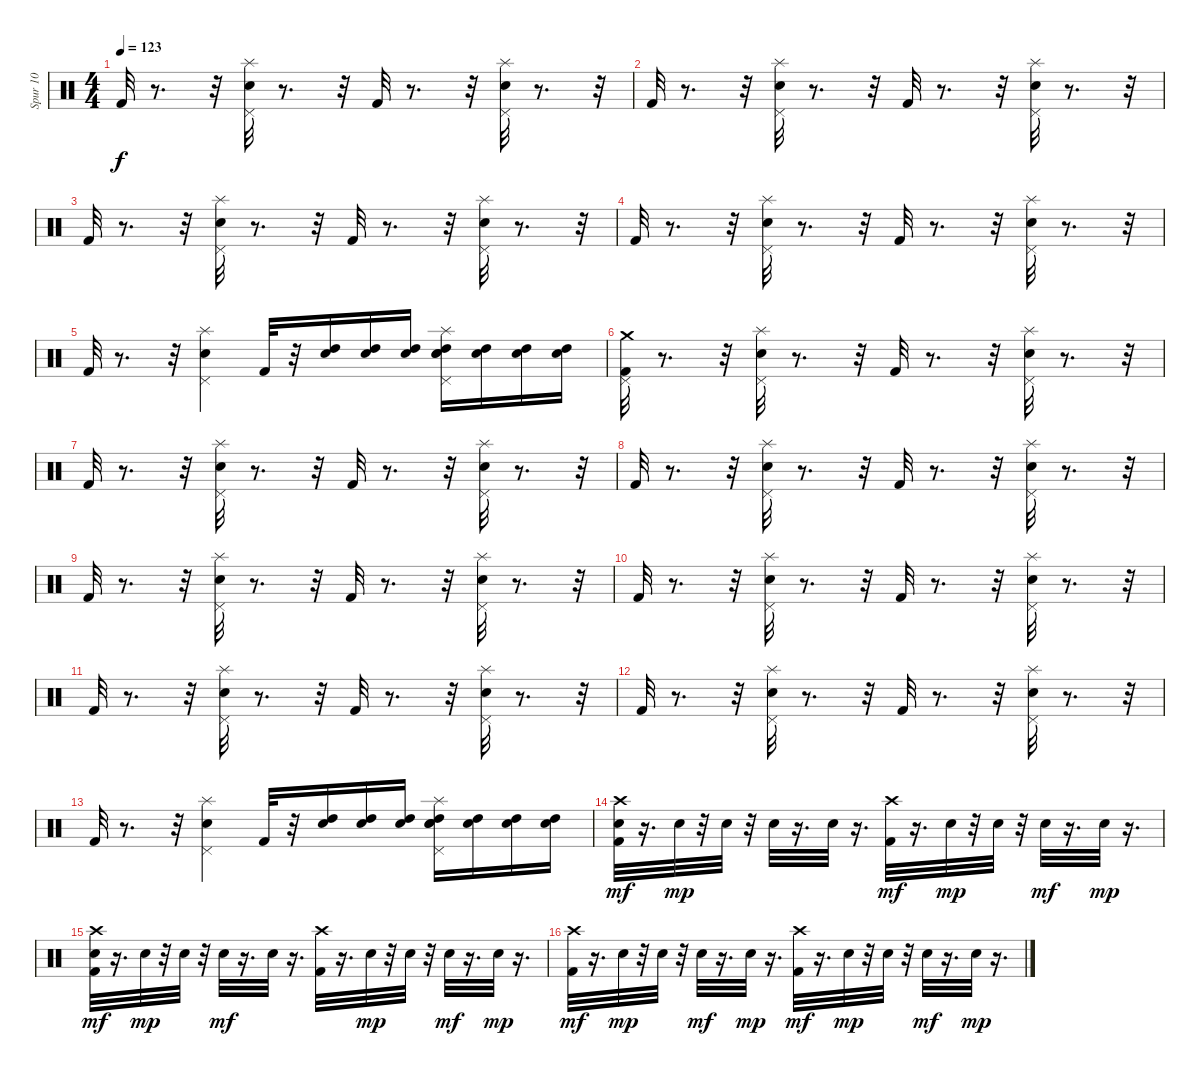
\track ("Spur 10" "Spur 10") {instrument percussion}
\staff {score}
\articulation defaults
\ts (4 4)
\tempo 123
\clef neutral
\ks c "Kick (hit) 2".32{dy f}
r.8{d} r.32 ("Snare (hit) 2" "Pedal Hi-Hat (hit)" "Splash (hit)").32 r.8{d} r.32 "Kick (hit) 2".32 r.8{d} r.32 ("Snare (hit) 2" "Pedal Hi-Hat (hit)" "Splash (hit)").32 r.8{d} r.32 |
"Kick (hit) 2".32 r.8{d} r.32 ("Snare (hit) 2" "Pedal Hi-Hat (hit)" "Splash (hit)").32 r.8{d} r.32 "Kick (hit) 2".32 r.8{d} r.32 ("Snare (hit) 2" "Pedal Hi-Hat (hit)" "Splash (hit)").32 r.8{d} r.32 |
"Kick (hit) 2".32 r.8{d} r.32 ("Snare (hit) 2" "Pedal Hi-Hat (hit)" "Splash (hit)").32 r.8{d} r.32 "Kick (hit) 2".32 r.8{d} r.32 ("Snare (hit) 2" "Pedal Hi-Hat (hit)" "Splash (hit)").32 r.8{d} r.32 |
"Kick (hit) 2".32 r.8{d} r.32 ("Snare (hit) 2" "Pedal Hi-Hat (hit)" "Splash (hit)").32 r.8{d} r.32 "Kick (hit) 2".32 r.8{d} r.32 ("Snare (hit) 2" "Pedal Hi-Hat (hit)" "Splash (hit)").32 r.8{d} r.32 |
"Kick (hit) 2".32 r.8{d} r.32 ("Snare (hit) 2" "Pedal Hi-Hat (hit)" "Splash (hit)").4 "Kick (hit) 2".32 r.32 ("Snare (hit) 2" "High Tom (hit)").16 ("Snare (hit) 2" "High Tom (hit)").16 ("Snare (hit) 2" "High Tom (hit)").16 ("High Tom (hit)" "Snare (hit) 2" "Snare (hit) 2" "Pedal Hi-Hat (hit)" "Splash (hit)").16 ("High Tom (hit)" "Snare (hit) 2").16 ("High Tom (hit)" "Snare (hit) 2").16 ("High Tom (hit)" "Snare (hit) 2").16 |
("Kick (hit) 2" "Crash medium (hit)" "Pedal Hi-Hat (hit)").32 r.8{d} r.32 ("Splash (hit)" "Pedal Hi-Hat (hit)" "Snare (hit) 2").32 r.8{d} r.32 "Kick (hit) 2".32 r.8{d} r.32 ("Snare (hit) 2" "Pedal Hi-Hat (hit)" "Splash (hit)").32 r.8{d} r.32 |
"Kick (hit) 2".32 r.8{d} r.32 ("Snare (hit) 2" "Pedal Hi-Hat (hit)" "Splash (hit)").32 r.8{d} r.32 "Kick (hit) 2".32 r.8{d} r.32 ("Snare (hit) 2" "Pedal Hi-Hat (hit)" "Splash (hit)").32 r.8{d} r.32 |
"Kick (hit) 2".32 r.8{d} r.32 ("Snare (hit) 2" "Pedal Hi-Hat (hit)" "Splash (hit)").32 r.8{d} r.32 "Kick (hit) 2".32 r.8{d} r.32 ("Snare (hit) 2" "Pedal Hi-Hat (hit)" "Splash (hit)").32 r.8{d} r.32 |
"Kick (hit) 2".32 r.8{d} r.32 ("Snare (hit) 2" "Pedal Hi-Hat (hit)" "Splash (hit)").32 r.8{d} r.32 "Kick (hit) 2".32 r.8{d} r.32 ("Snare (hit) 2" "Pedal Hi-Hat (hit)" "Splash (hit)").32 r.8{d} r.32 |
"Kick (hit) 2".32 r.8{d} r.32 ("Snare (hit) 2" "Pedal Hi-Hat (hit)" "Splash (hit)").32 r.8{d} r.32 "Kick (hit) 2".32 r.8{d} r.32 ("Snare (hit) 2" "Pedal Hi-Hat (hit)" "Splash (hit)").32 r.8{d} r.32 |
"Kick (hit) 2".32 r.8{d} r.32 ("Snare (hit) 2" "Pedal Hi-Hat (hit)" "Splash (hit)").32 r.8{d} r.32 "Kick (hit) 2".32 r.8{d} r.32 ("Snare (hit) 2" "Pedal Hi-Hat (hit)" "Splash (hit)").32 r.8{d} r.32 |
"Kick (hit) 2".32 r.8{d} r.32 ("Snare (hit) 2" "Pedal Hi-Hat (hit)" "Splash (hit)").32 r.8{d} r.32 "Kick (hit) 2".32 r.8{d} r.32 ("Snare (hit) 2" "Pedal Hi-Hat (hit)" "Splash (hit)").32 r.8{d} r.32 |
"Kick (hit) 2".32 r.8{d} r.32 ("Snare (hit) 2" "Pedal Hi-Hat (hit)" "Splash (hit)").4 "Kick (hit) 2".32 r.32 ("Snare (hit) 2" "High Tom (hit)").16 ("Snare (hit) 2" "High Tom (hit)").16 ("Snare (hit) 2" "High Tom (hit)").16 ("High Tom (hit)" "Snare (hit) 2" "Snare (hit) 2" "Pedal Hi-Hat (hit)" "Splash (hit)").16 ("High Tom (hit)" "Snare (hit) 2").16 ("High Tom (hit)" "Snare (hit) 2").16 ("High Tom (hit)" "Snare (hit) 2").16 |
("Kick (hit) 2" "Crash high (hit)" "Snare (hit) 2").32{dy mf} r.16{d} "Snare (hit) 2".32{dy mp} r.32 "Snare (hit) 2".32 r.32 "Snare (hit) 2".32 r.16{d} "Snare (hit) 2".32 r.16{d} ("Kick (hit) 2" "Crash high (hit)").32{dy mf} r.16{d} "Snare (hit) 2".32{dy mp} r.32 "Snare (hit) 2".32 r.32 "Snare (hit) 2".32{dy mf} r.16{d} "Snare (hit) 2".32{dy mp} r.16{d} |
("Kick (hit) 2" "Crash high (hit)" "Snare (hit) 2").32{dy mf} r.16{d} "Snare (hit) 2".32{dy mp} r.32 "Snare (hit) 2".32 r.32 "Snare (hit) 2".32{dy mf} r.16{d} "Snare (hit) 2".32 r.16{d} ("Kick (hit) 2" "Crash high (hit)").32 r.16{d} "Snare (hit) 2".32{dy mp} r.32 "Snare (hit) 2".32 r.32 "Snare (hit) 2".32{dy mf} r.16{d} "Snare (hit) 2".32{dy mp} r.16{d} |
("Kick (hit) 2" "Crash high (hit)").32{dy mf} r.16{d} "Snare (hit) 2".32{dy mp} r.32 "Snare (hit) 2".32 r.32 "Snare (hit) 2".32{dy mf} r.16{d} "Snare (hit) 2".32{dy mp} r.16{d} ("Kick (hit) 2" "Crash high (hit)").32{dy mf} r.16{d} "Snare (hit) 2".32{dy mp} r.32 "Snare (hit) 2".32 r.32 "Snare (hit) 2".32{dy mf} r.16{d} "Snare (hit) 2".32{dy mp} r.16{d}
